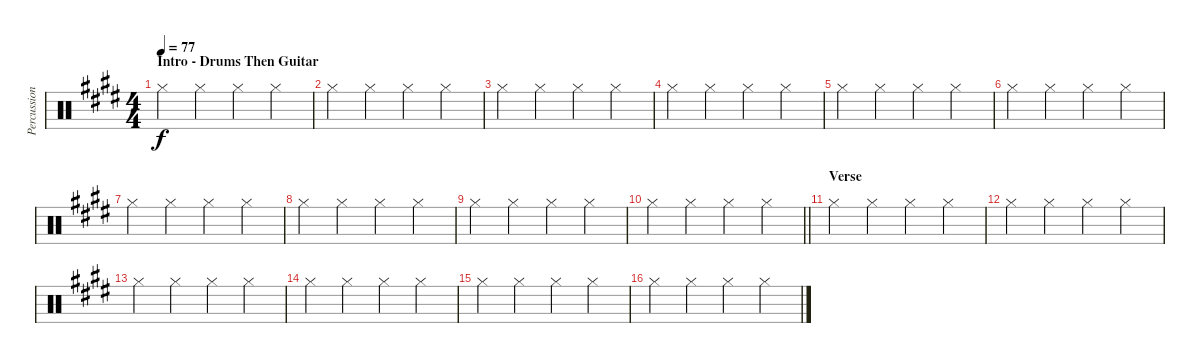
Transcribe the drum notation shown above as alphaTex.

\track ("Percussion" "Percussion") {instrument percussion}
\staff {score}
\articulation defaults
\ts (4 4)
\section ("" "Intro - Drums Then Guitar")
\tempo 77
\clef neutral
\ks c#minor "Hi-Hat (closed)".4{dy f} "Hi-Hat (closed)".4 "Hi-Hat (closed)".4 "Hi-Hat (closed)".4
|
"Hi-Hat (closed)".4 "Hi-Hat (closed)".4 "Hi-Hat (closed)".4 "Hi-Hat (closed)".4 |
"Hi-Hat (closed)".4 "Hi-Hat (closed)".4 "Hi-Hat (closed)".4 "Hi-Hat (closed)".4 |
"Hi-Hat (closed)".4 "Hi-Hat (closed)".4 "Hi-Hat (closed)".4 "Hi-Hat (closed)".4 |
"Hi-Hat (closed)".4 "Hi-Hat (closed)".4 "Hi-Hat (closed)".4 "Hi-Hat (closed)".4 |
"Hi-Hat (closed)".4 "Hi-Hat (closed)".4 "Hi-Hat (closed)".4 "Hi-Hat (closed)".4 |
"Hi-Hat (closed)".4 "Hi-Hat (closed)".4 "Hi-Hat (closed)".4 "Hi-Hat (closed)".4 |
"Hi-Hat (closed)".4 "Hi-Hat (closed)".4 "Hi-Hat (closed)".4 "Hi-Hat (closed)".4 |
"Hi-Hat (closed)".4 "Hi-Hat (closed)".4 "Hi-Hat (closed)".4 "Hi-Hat (closed)".4 |
\barLineRight lightlight "Hi-Hat (closed)".4 "Hi-Hat (closed)".4 "Hi-Hat (closed)".4 "Hi-Hat (closed)".4
|
\section ("" "Verse")
"Hi-Hat (closed)".4 "Hi-Hat (closed)".4 "Hi-Hat (closed)".4 "Hi-Hat (closed)".4 |
"Hi-Hat (closed)".4 "Hi-Hat (closed)".4 "Hi-Hat (closed)".4 "Hi-Hat (closed)".4 |
"Hi-Hat (closed)".4 "Hi-Hat (closed)".4 "Hi-Hat (closed)".4 "Hi-Hat (closed)".4 |
"Hi-Hat (closed)".4 "Hi-Hat (closed)".4 "Hi-Hat (closed)".4 "Hi-Hat (closed)".4 |
"Hi-Hat (closed)".4 "Hi-Hat (closed)".4 "Hi-Hat (closed)".4 "Hi-Hat (closed)".4 |
"Hi-Hat (closed)".4 "Hi-Hat (closed)".4 "Hi-Hat (closed)".4 "Hi-Hat (closed)".4
